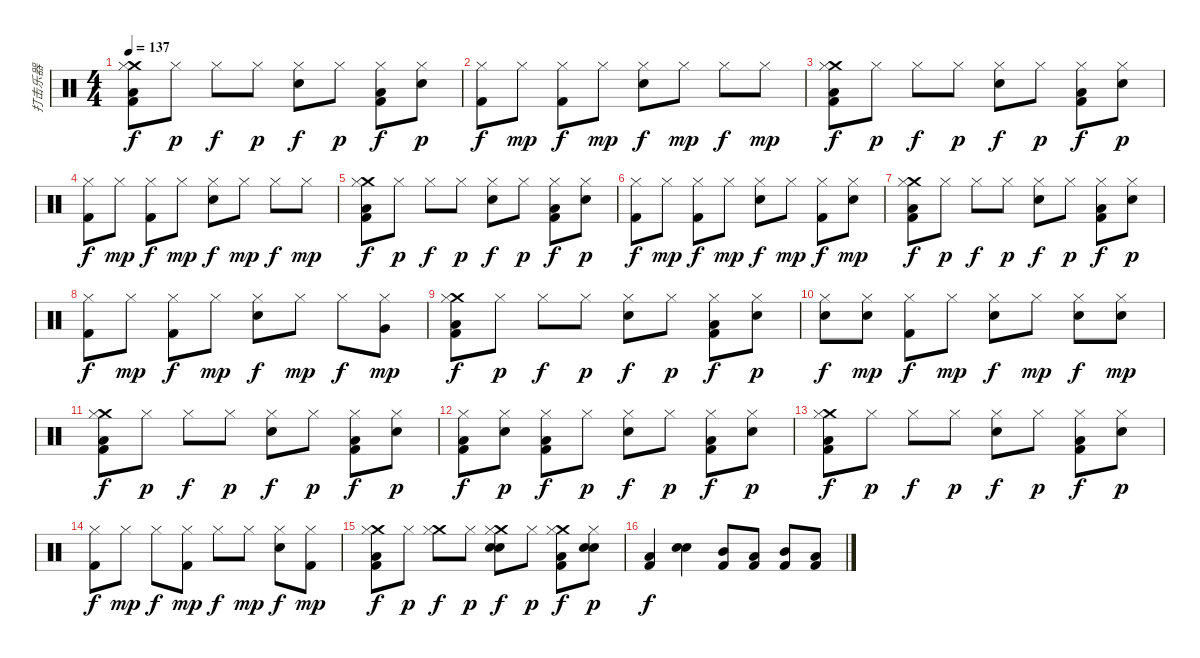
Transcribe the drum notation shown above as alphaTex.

\track ("打击乐器" "打击乐器") {instrument percussion}
\staff {score}
\articulation defaults
\ts (4 4)
\tempo 137
\clef neutral
\ks c
("Low Floor Tom (hit)" "Kick (hit) 2" "Crash medium (hit)" "Hi-Hat (closed)").8{dy f} "Hi-Hat (closed)".8{dy p} "Hi-Hat (closed)".8{dy f} "Hi-Hat (closed)".8{dy p} ("Electric Snare (hit)" "Hi-Hat (closed)").8{dy f} "Hi-Hat (closed)".8{dy p} ("Low Floor Tom (hit)" "Kick (hit) 2" "Hi-Hat (closed)").8{dy f} ("Electric Snare (hit)" "Hi-Hat (closed)").8{dy p} |
("Kick (hit) 2" "Hi-Hat (closed)").8{dy f} "Hi-Hat (closed)".8{dy mp} ("Kick (hit) 2" "Hi-Hat (closed)").8{dy f} "Hi-Hat (closed)".8{dy mp} ("Electric Snare (hit)" "Hi-Hat (closed)").8{dy f} "Hi-Hat (closed)".8{dy mp} "Hi-Hat (closed)".8{dy f} "Hi-Hat (closed)".8{dy mp} |
("Low Floor Tom (hit)" "Kick (hit) 2" "Crash medium (hit)" "Hi-Hat (closed)").8{dy f} "Hi-Hat (closed)".8{dy p} "Hi-Hat (closed)".8{dy f} "Hi-Hat (closed)".8{dy p} ("Electric Snare (hit)" "Hi-Hat (closed)").8{dy f} "Hi-Hat (closed)".8{dy p} ("Low Floor Tom (hit)" "Kick (hit) 2" "Hi-Hat (closed)").8{dy f} ("Electric Snare (hit)" "Hi-Hat (closed)").8{dy p} |
("Kick (hit) 2" "Hi-Hat (closed)").8{dy f} "Hi-Hat (closed)".8{dy mp} ("Kick (hit) 2" "Hi-Hat (closed)").8{dy f} "Hi-Hat (closed)".8{dy mp} ("Electric Snare (hit)" "Hi-Hat (closed)").8{dy f} "Hi-Hat (closed)".8{dy mp} "Hi-Hat (closed)".8{dy f} "Hi-Hat (closed)".8{dy mp} |
("Low Floor Tom (hit)" "Kick (hit) 2" "Crash medium (hit)" "Hi-Hat (closed)").8{dy f} "Hi-Hat (closed)".8{dy p} "Hi-Hat (closed)".8{dy f} "Hi-Hat (closed)".8{dy p} ("Electric Snare (hit)" "Hi-Hat (closed)").8{dy f} "Hi-Hat (closed)".8{dy p} ("Low Floor Tom (hit)" "Kick (hit) 2" "Hi-Hat (closed)").8{dy f} ("Electric Snare (hit)" "Hi-Hat (closed)").8{dy p} |
("Kick (hit) 2" "Hi-Hat (closed)").8{dy f} "Hi-Hat (closed)".8{dy mp} ("Kick (hit) 2" "Hi-Hat (closed)").8{dy f} "Hi-Hat (closed)".8{dy mp} ("Electric Snare (hit)" "Hi-Hat (closed)").8{dy f} "Hi-Hat (closed)".8{dy mp} ("Kick (hit) 2" "Hi-Hat (closed)").8{dy f} ("Electric Snare (hit)" "Hi-Hat (closed)").8{dy mp} |
("Low Floor Tom (hit)" "Kick (hit) 2" "Crash medium (hit)" "Hi-Hat (closed)").8{dy f} "Hi-Hat (closed)".8{dy p} "Hi-Hat (closed)".8{dy f} "Hi-Hat (closed)".8{dy p} ("Electric Snare (hit)" "Hi-Hat (closed)").8{dy f} "Hi-Hat (closed)".8{dy p} ("Low Floor Tom (hit)" "Kick (hit) 2" "Hi-Hat (closed)").8{dy f} ("Electric Snare (hit)" "Hi-Hat (closed)").8{dy p} |
("Kick (hit) 2" "Hi-Hat (closed)").8{dy f} "Hi-Hat (closed)".8{dy mp} ("Kick (hit) 2" "Hi-Hat (closed)").8{dy f} "Hi-Hat (closed)".8{dy mp} ("Electric Snare (hit)" "Hi-Hat (closed)").8{dy f} "Hi-Hat (closed)".8{dy mp} "Hi-Hat (closed)".8{dy f} ("Very Low Tom (hit)" "Hi-Hat (closed)").8{dy mp} |
("Low Floor Tom (hit)" "Kick (hit) 2" "Crash medium (hit)" "Hi-Hat (closed)").8{dy f} "Hi-Hat (closed)".8{dy p} "Hi-Hat (closed)".8{dy f} "Hi-Hat (closed)".8{dy p} ("Electric Snare (hit)" "Hi-Hat (closed)").8{dy f} "Hi-Hat (closed)".8{dy p} ("Low Floor Tom (hit)" "Kick (hit) 2" "Hi-Hat (closed)").8{dy f} ("Electric Snare (hit)" "Hi-Hat (closed)").8{dy p} |
("Electric Snare (hit)" "Hi-Hat (closed)").8{dy f} ("Electric Snare (hit)" "Hi-Hat (closed)").8{dy mp} ("Kick (hit) 2" "Hi-Hat (closed)").8{dy f} "Hi-Hat (closed)".8{dy mp} ("Electric Snare (hit)" "Hi-Hat (closed)").8{dy f} "Hi-Hat (closed)".8{dy mp} ("Electric Snare (hit)" "Hi-Hat (closed)").8{dy f} ("Electric Snare (hit)" "Hi-Hat (closed)").8{dy mp} |
("Low Floor Tom (hit)" "Kick (hit) 2" "Crash medium (hit)" "Hi-Hat (closed)").8{dy f} "Hi-Hat (closed)".8{dy p} "Hi-Hat (closed)".8{dy f} "Hi-Hat (closed)".8{dy p} ("Electric Snare (hit)" "Hi-Hat (closed)").8{dy f} "Hi-Hat (closed)".8{dy p} ("Low Floor Tom (hit)" "Kick (hit) 2" "Hi-Hat (closed)").8{dy f} ("Electric Snare (hit)" "Hi-Hat (closed)").8{dy p} |
("Low Floor Tom (hit)" "Kick (hit) 2" "Hi-Hat (closed)").8{dy f} ("Electric Snare (hit)" "Hi-Hat (closed)").8{dy p} ("Low Floor Tom (hit)" "Kick (hit) 2" "Hi-Hat (closed)").8{dy f} "Hi-Hat (closed)".8{dy p} ("Electric Snare (hit)" "Hi-Hat (closed)").8{dy f} "Hi-Hat (closed)".8{dy p} ("Low Floor Tom (hit)" "Kick (hit) 2" "Hi-Hat (closed)").8{dy f} ("Electric Snare (hit)" "Hi-Hat (closed)").8{dy p} |
("Low Floor Tom (hit)" "Kick (hit) 2" "Crash medium (hit)" "Hi-Hat (closed)").8{dy f} "Hi-Hat (closed)".8{dy p} "Hi-Hat (closed)".8{dy f} "Hi-Hat (closed)".8{dy p} ("Electric Snare (hit)" "Hi-Hat (closed)").8{dy f} "Hi-Hat (closed)".8{dy p} ("Low Floor Tom (hit)" "Kick (hit) 2" "Hi-Hat (closed)").8{dy f} ("Electric Snare (hit)" "Hi-Hat (closed)").8{dy p} |
("Kick (hit) 2" "Hi-Hat (closed)").8{dy f} "Hi-Hat (closed)".8{dy mp} "Hi-Hat (closed)".8{dy f} ("Kick (hit) 2" "Hi-Hat (closed)").8{dy mp} "Hi-Hat (closed)".8{dy f} "Hi-Hat (closed)".8{dy mp} ("Electric Snare (hit)" "Hi-Hat (closed)").8{dy f} ("Kick (hit) 2" "Hi-Hat (closed)").8{dy mp} |
("Low Floor Tom (hit)" "Kick (hit) 2" "Crash medium (hit)" "Hi-Hat (closed)").8{dy f} "Hi-Hat (closed)".8{dy p} ("Crash medium (hit)" "Hi-Hat (closed)").8{dy f} "Hi-Hat (closed)".8{dy p} ("Hand Clap (hit)" "Crash medium (hit)" "Electric Snare (hit)" "Hi-Hat (closed)").8{dy f} "Hi-Hat (closed)".8{dy p} ("Low Floor Tom (hit)" "Kick (hit) 2" "Crash medium (hit)" "Hi-Hat (closed)").8{dy f} ("Hand Clap (hit)" "Electric Snare (hit)" "Hi-Hat (closed)").8{dy p} |
("Low Floor Tom (hit)" "Kick (hit) 2").4{dy f} ("Electric Snare (hit)" "Hand Clap (hit)").4 ("Mid Tom (hit)" "Kick (hit) 2").8 ("Low Tom (hit)" "Kick (hit) 2").8 ("Mid Tom (hit)" "Kick (hit) 2").8 ("Low Tom (hit)" "Kick (hit) 2").8
